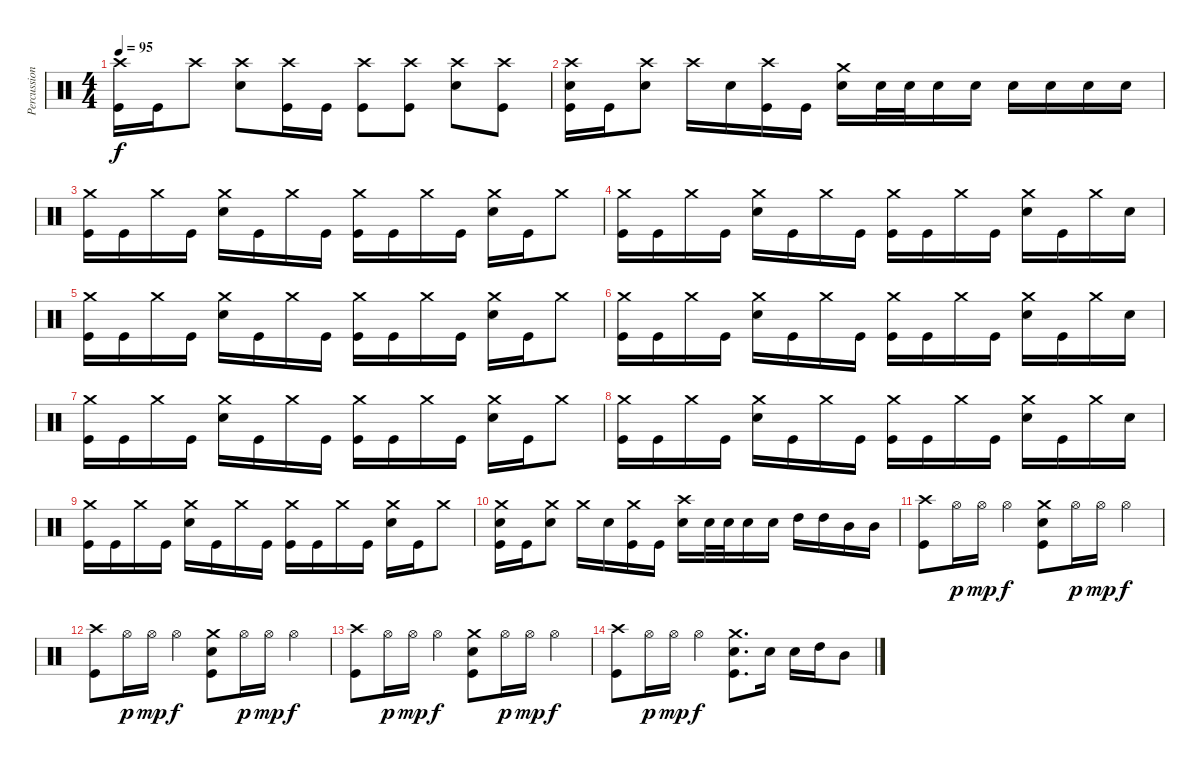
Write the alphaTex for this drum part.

\track ("Percussion" "Percussion") {instrument percussion}
\staff {score}
\articulation defaults
\ts (4 4)
\tempo 95
\clef neutral
\ks c
("Crash high (hit)" "Kick (hit)").16{dy f} "Kick (hit)".16 "Crash high (hit)".8 ("Crash high (hit)" "Snare (hit) 2").8 ("Crash high (hit)" "Kick (hit)").16 "Kick (hit)".16 ("Crash high (hit)" "Kick (hit)").8 ("Crash high (hit)" "Kick (hit)").8 ("Crash high (hit)" "Snare (hit) 2").8 ("Crash high (hit)" "Kick (hit)").8 |
("Crash high (hit)" "Snare (hit) 2" "Kick (hit)").16 "Kick (hit)".16 ("Crash high (hit)" "Snare (hit) 2").8 "Crash high (hit)".16 "Snare (hit) 2".16 ("Crash high (hit)" "Kick (hit)").16 "Kick (hit)".16 ("Crash medium (hit)" "Snare (hit) 2").16 "Snare (hit) 2".32 "Snare (hit) 2".32 "Snare (hit) 2".16 "Snare (hit) 2".16 "Snare (hit) 2".16 "Snare (hit) 2".16 "Snare (hit) 2".16 "Snare (hit) 2".16 |
("Crash medium (hit)" "Kick (hit)").16 "Kick (hit)".16 "Crash medium (hit)".16 "Kick (hit)".16 ("Crash medium (hit)" "Snare (hit) 2").16 "Kick (hit)".16 "Crash medium (hit)".16 "Kick (hit)".16 ("Crash medium (hit)" "Kick (hit)").16 "Kick (hit)".16 "Crash medium (hit)".16 "Kick (hit)".16 ("Crash medium (hit)" "Snare (hit) 2").16 "Kick (hit)".16 "Crash medium (hit)".8 |
("Crash medium (hit)" "Kick (hit)").16 "Kick (hit)".16 "Crash medium (hit)".16 "Kick (hit)".16 ("Crash medium (hit)" "Snare (hit) 2").16 "Kick (hit)".16 "Crash medium (hit)".16 "Kick (hit)".16 ("Crash medium (hit)" "Kick (hit)").16 "Kick (hit)".16 "Crash medium (hit)".16 "Kick (hit)".16 ("Crash medium (hit)" "Snare (hit) 2").16 "Kick (hit)".16 "Crash medium (hit)".16 "Snare (hit) 2".16 |
("Crash medium (hit)" "Kick (hit)").16 "Kick (hit)".16 "Crash medium (hit)".16 "Kick (hit)".16 ("Crash medium (hit)" "Snare (hit) 2").16 "Kick (hit)".16 "Crash medium (hit)".16 "Kick (hit)".16 ("Crash medium (hit)" "Kick (hit)").16 "Kick (hit)".16 "Crash medium (hit)".16 "Kick (hit)".16 ("Crash medium (hit)" "Snare (hit) 2").16 "Kick (hit)".16 "Crash medium (hit)".8 |
("Crash medium (hit)" "Kick (hit)").16 "Kick (hit)".16 "Crash medium (hit)".16 "Kick (hit)".16 ("Crash medium (hit)" "Snare (hit) 2").16 "Kick (hit)".16 "Crash medium (hit)".16 "Kick (hit)".16 ("Crash medium (hit)" "Kick (hit)").16 "Kick (hit)".16 "Crash medium (hit)".16 "Kick (hit)".16 ("Crash medium (hit)" "Snare (hit) 2").16 "Kick (hit)".16 "Crash medium (hit)".16 "Snare (hit) 2".16 |
("Crash medium (hit)" "Kick (hit)").16 "Kick (hit)".16 "Crash medium (hit)".16 "Kick (hit)".16 ("Crash medium (hit)" "Snare (hit) 2").16 "Kick (hit)".16 "Crash medium (hit)".16 "Kick (hit)".16 ("Crash medium (hit)" "Kick (hit)").16 "Kick (hit)".16 "Crash medium (hit)".16 "Kick (hit)".16 ("Crash medium (hit)" "Snare (hit) 2").16 "Kick (hit)".16 "Crash medium (hit)".8 |
("Crash medium (hit)" "Kick (hit)").16 "Kick (hit)".16 "Crash medium (hit)".16 "Kick (hit)".16 ("Crash medium (hit)" "Snare (hit) 2").16 "Kick (hit)".16 "Crash medium (hit)".16 "Kick (hit)".16 ("Crash medium (hit)" "Kick (hit)").16 "Kick (hit)".16 "Crash medium (hit)".16 "Kick (hit)".16 ("Crash medium (hit)" "Snare (hit) 2").16 "Kick (hit)".16 "Crash medium (hit)".16 "Snare (hit) 2".16 |
("Crash medium (hit)" "Kick (hit)").16 "Kick (hit)".16 "Crash medium (hit)".16 "Kick (hit)".16 ("Crash medium (hit)" "Snare (hit) 2").16 "Kick (hit)".16 "Crash medium (hit)".16 "Kick (hit)".16 ("Crash medium (hit)" "Kick (hit)").16 "Kick (hit)".16 "Crash medium (hit)".16 "Kick (hit)".16 ("Crash medium (hit)" "Snare (hit) 2").16 "Kick (hit)".16 "Crash medium (hit)".8 |
("Crash medium (hit)" "Snare (hit) 2" "Kick (hit)").16 "Kick (hit)".16 ("Crash medium (hit)" "Snare (hit) 2").8 "Crash medium (hit)".16 "Snare (hit) 2".16 ("Crash medium (hit)" "Kick (hit)").16 "Kick (hit)".16 ("Crash high (hit)" "Snare (hit) 2").16 "Snare (hit) 2".32 "Snare (hit) 2".32 "Snare (hit) 2".16 "Snare (hit) 2".16 "High Tom (hit)".16 "High Tom (hit)".16 "Mid Tom (hit)".16 "Mid Tom (hit)".16 |
("Crash high (hit)" "Kick (hit)").8 "Hi-Hat (open)".16{dy p} "Hi-Hat (open)".16{dy mp} "Hi-Hat (open)".4{dy f} ("Crash medium (hit)" "Snare (hit) 2" "Kick (hit)").8 "Hi-Hat (open)".16{dy p} "Hi-Hat (open)".16{dy mp} "Hi-Hat (open)".4{dy f} |
("Crash high (hit)" "Kick (hit)").8 "Hi-Hat (open)".16{dy p} "Hi-Hat (open)".16{dy mp} "Hi-Hat (open)".4{dy f} ("Crash medium (hit)" "Snare (hit) 2" "Kick (hit)").8 "Hi-Hat (open)".16{dy p} "Hi-Hat (open)".16{dy mp} "Hi-Hat (open)".4{dy f} |
("Crash high (hit)" "Kick (hit)").8 "Hi-Hat (open)".16{dy p} "Hi-Hat (open)".16{dy mp} "Hi-Hat (open)".4{dy f} ("Crash medium (hit)" "Snare (hit) 2" "Kick (hit)").8 "Hi-Hat (open)".16{dy p} "Hi-Hat (open)".16{dy mp} "Hi-Hat (open)".4{dy f} |
("Crash high (hit)" "Kick (hit)").8 "Hi-Hat (open)".16{dy p} "Hi-Hat (open)".16{dy mp} "Hi-Hat (open)".4{dy f} ("Crash medium (hit)" "Snare (hit) 2" "Kick (hit)").8{d} "Snare (hit) 2".16 "Snare (hit) 2".16 "High Tom (hit)".16 "Mid Tom (hit)".8
